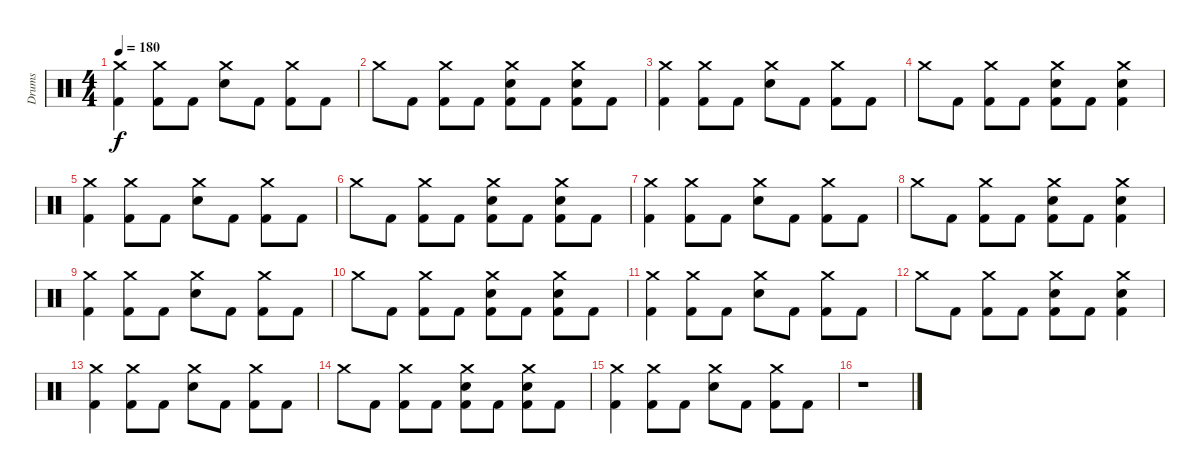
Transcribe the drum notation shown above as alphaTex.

\track ("Drums" "Drums") {instrument percussion}
\staff {score}
\articulation defaults
\ts (4 4)
\tempo 180
\clef neutral
\ks c
("Crash medium (hit)" "Kick (hit) 2").4{dy f} ("Crash medium (hit)" "Kick (hit) 2").8 "Kick (hit) 2".8 ("Crash medium (hit)" "Snare (hit) 2").8 "Kick (hit) 2".8 ("Crash medium (hit)" "Kick (hit) 2").8 "Kick (hit) 2".8 |
"Crash medium (hit)".8 "Kick (hit) 2".8 ("Crash medium (hit)" "Kick (hit) 2").8 "Kick (hit) 2".8 ("Crash medium (hit)" "Snare (hit) 2" "Kick (hit) 2").8 "Kick (hit) 2".8 ("Crash medium (hit)" "Snare (hit) 2" "Kick (hit) 2").8 "Kick (hit) 2".8 |
("Crash medium (hit)" "Kick (hit) 2").4 ("Crash medium (hit)" "Kick (hit) 2").8 "Kick (hit) 2".8 ("Crash medium (hit)" "Snare (hit) 2").8 "Kick (hit) 2".8 ("Crash medium (hit)" "Kick (hit) 2").8 "Kick (hit) 2".8 |
"Crash medium (hit)".8 "Kick (hit) 2".8 ("Crash medium (hit)" "Kick (hit) 2").8 "Kick (hit) 2".8 ("Crash medium (hit)" "Snare (hit) 2" "Kick (hit) 2").8 "Kick (hit) 2".8 ("Crash medium (hit)" "Snare (hit) 2" "Kick (hit) 2").4 |
("Crash medium (hit)" "Kick (hit) 2").4 ("Crash medium (hit)" "Kick (hit) 2").8 "Kick (hit) 2".8 ("Crash medium (hit)" "Snare (hit) 2").8 "Kick (hit) 2".8 ("Crash medium (hit)" "Kick (hit) 2").8 "Kick (hit) 2".8 |
"Crash medium (hit)".8 "Kick (hit) 2".8 ("Crash medium (hit)" "Kick (hit) 2").8 "Kick (hit) 2".8 ("Crash medium (hit)" "Snare (hit) 2" "Kick (hit) 2").8 "Kick (hit) 2".8 ("Crash medium (hit)" "Snare (hit) 2" "Kick (hit) 2").8 "Kick (hit) 2".8 |
("Crash medium (hit)" "Kick (hit) 2").4 ("Crash medium (hit)" "Kick (hit) 2").8 "Kick (hit) 2".8 ("Crash medium (hit)" "Snare (hit) 2").8 "Kick (hit) 2".8 ("Crash medium (hit)" "Kick (hit) 2").8 "Kick (hit) 2".8 |
"Crash medium (hit)".8 "Kick (hit) 2".8 ("Crash medium (hit)" "Kick (hit) 2").8 "Kick (hit) 2".8 ("Crash medium (hit)" "Snare (hit) 2" "Kick (hit) 2").8 "Kick (hit) 2".8 ("Crash medium (hit)" "Snare (hit) 2" "Kick (hit) 2").4 |
("Crash medium (hit)" "Kick (hit) 2").4 ("Crash medium (hit)" "Kick (hit) 2").8 "Kick (hit) 2".8 ("Crash medium (hit)" "Snare (hit) 2").8 "Kick (hit) 2".8 ("Crash medium (hit)" "Kick (hit) 2").8 "Kick (hit) 2".8 |
"Crash medium (hit)".8 "Kick (hit) 2".8 ("Crash medium (hit)" "Kick (hit) 2").8 "Kick (hit) 2".8 ("Crash medium (hit)" "Snare (hit) 2" "Kick (hit) 2").8 "Kick (hit) 2".8 ("Crash medium (hit)" "Snare (hit) 2" "Kick (hit) 2").8 "Kick (hit) 2".8 |
("Crash medium (hit)" "Kick (hit) 2").4 ("Crash medium (hit)" "Kick (hit) 2").8 "Kick (hit) 2".8 ("Crash medium (hit)" "Snare (hit) 2").8 "Kick (hit) 2".8 ("Crash medium (hit)" "Kick (hit) 2").8 "Kick (hit) 2".8 |
"Crash medium (hit)".8 "Kick (hit) 2".8 ("Crash medium (hit)" "Kick (hit) 2").8 "Kick (hit) 2".8 ("Crash medium (hit)" "Snare (hit) 2" "Kick (hit) 2").8 "Kick (hit) 2".8 ("Crash medium (hit)" "Snare (hit) 2" "Kick (hit) 2").4 |
("Crash medium (hit)" "Kick (hit) 2").4 ("Crash medium (hit)" "Kick (hit) 2").8 "Kick (hit) 2".8 ("Crash medium (hit)" "Snare (hit) 2").8 "Kick (hit) 2".8 ("Crash medium (hit)" "Kick (hit) 2").8 "Kick (hit) 2".8 |
"Crash medium (hit)".8 "Kick (hit) 2".8 ("Crash medium (hit)" "Kick (hit) 2").8 "Kick (hit) 2".8 ("Crash medium (hit)" "Snare (hit) 2" "Kick (hit) 2").8 "Kick (hit) 2".8 ("Crash medium (hit)" "Snare (hit) 2" "Kick (hit) 2").8 "Kick (hit) 2".8 |
("Crash medium (hit)" "Kick (hit) 2").4 ("Crash medium (hit)" "Kick (hit) 2").8 "Kick (hit) 2".8 ("Crash medium (hit)" "Snare (hit) 2").8 "Kick (hit) 2".8 ("Crash medium (hit)" "Kick (hit) 2").8 "Kick (hit) 2".8 |
r.1
